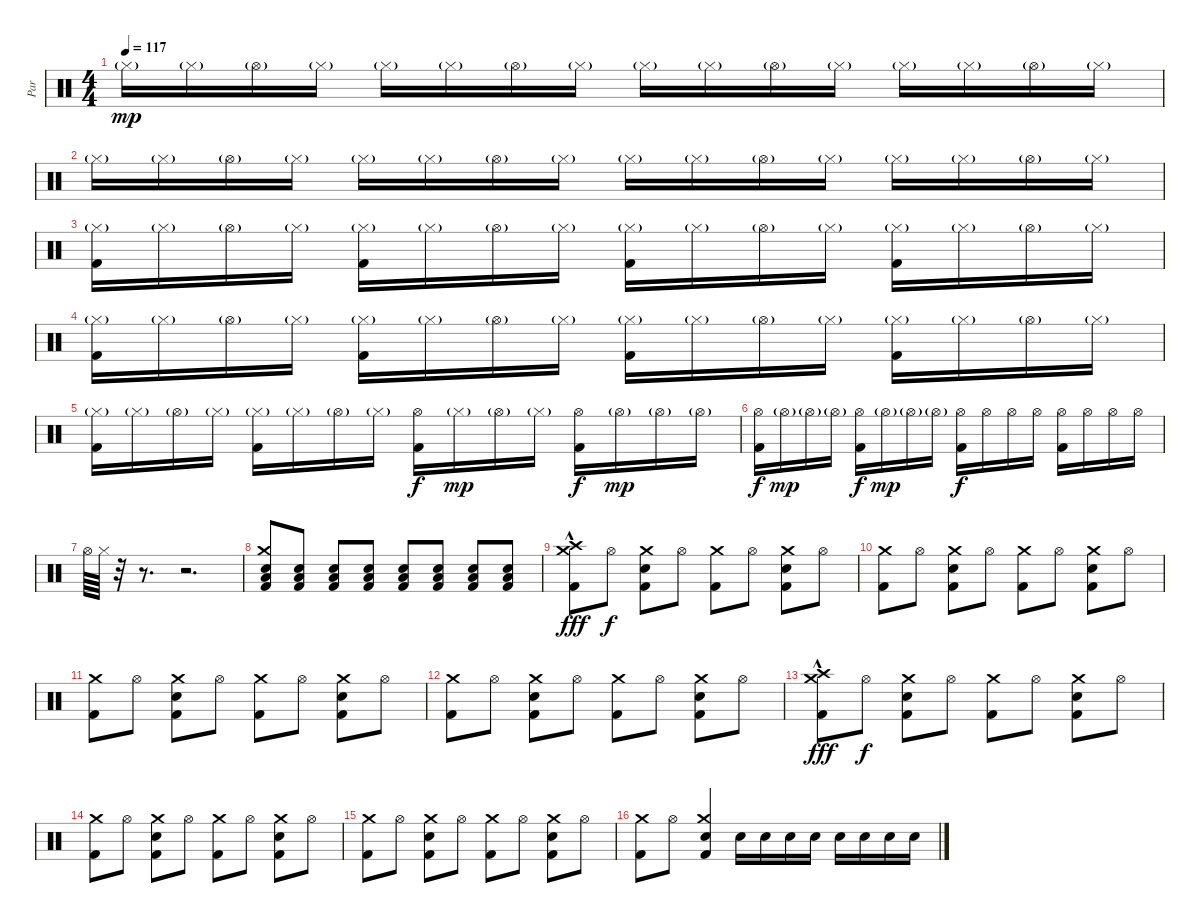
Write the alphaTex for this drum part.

\track ("Par" "Par") {instrument percussion}
\staff {score}
\articulation defaults
\ts (4 4)
\tempo 117
\clef neutral
\ks c "Hi-Hat (closed)"{g}.16{dy mp} "Hi-Hat (closed)"{g}.16 "Hi-Hat (open)"{g}.16 "Hi-Hat (closed)"{g}.16 "Hi-Hat (closed)"{g}.16 "Hi-Hat (closed)"{g}.16 "Hi-Hat (open)"{g}.16 "Hi-Hat (closed)"{g}.16 "Hi-Hat (closed)"{g}.16 "Hi-Hat (closed)"{g}.16 "Hi-Hat (open)"{g}.16 "Hi-Hat (closed)"{g}.16 "Hi-Hat (closed)"{g}.16 "Hi-Hat (closed)"{g}.16 "Hi-Hat (open)"{g}.16 "Hi-Hat (closed)"{g}.16
|
"Hi-Hat (closed)"{g}.16 "Hi-Hat (closed)"{g}.16 "Hi-Hat (open)"{g}.16 "Hi-Hat (closed)"{g}.16 "Hi-Hat (closed)"{g}.16 "Hi-Hat (closed)"{g}.16 "Hi-Hat (open)"{g}.16 "Hi-Hat (closed)"{g}.16 "Hi-Hat (closed)"{g}.16 "Hi-Hat (closed)"{g}.16 "Hi-Hat (open)"{g}.16 "Hi-Hat (closed)"{g}.16 "Hi-Hat (closed)"{g}.16 "Hi-Hat (closed)"{g}.16 "Hi-Hat (open)"{g}.16 "Hi-Hat (closed)"{g}.16 |
("Hi-Hat (closed)"{g} "Kick (hit) 2").16 "Hi-Hat (closed)"{g}.16 "Hi-Hat (open)"{g}.16 "Hi-Hat (closed)"{g}.16 ("Hi-Hat (closed)"{g} "Kick (hit) 2").16 "Hi-Hat (closed)"{g}.16 "Hi-Hat (open)"{g}.16 "Hi-Hat (closed)"{g}.16 ("Hi-Hat (closed)"{g} "Kick (hit) 2").16 "Hi-Hat (closed)"{g}.16 "Hi-Hat (open)"{g}.16 "Hi-Hat (closed)"{g}.16 ("Hi-Hat (closed)"{g} "Kick (hit) 2").16 "Hi-Hat (closed)"{g}.16 "Hi-Hat (open)"{g}.16 "Hi-Hat (closed)"{g}.16 |
("Hi-Hat (closed)"{g} "Kick (hit) 2").16 "Hi-Hat (closed)"{g}.16 "Hi-Hat (open)"{g}.16 "Hi-Hat (closed)"{g}.16 ("Hi-Hat (closed)"{g} "Kick (hit) 2").16 "Hi-Hat (closed)"{g}.16 "Hi-Hat (open)"{g}.16 "Hi-Hat (closed)"{g}.16 ("Hi-Hat (closed)"{g} "Kick (hit) 2").16 "Hi-Hat (closed)"{g}.16 "Hi-Hat (open)"{g}.16 "Hi-Hat (closed)"{g}.16 ("Hi-Hat (closed)"{g} "Kick (hit) 2").16 "Hi-Hat (closed)"{g}.16 "Hi-Hat (open)"{g}.16 "Hi-Hat (closed)"{g}.16 |
("Hi-Hat (closed)"{g} "Kick (hit) 2").16 "Hi-Hat (closed)"{g}.16 "Hi-Hat (open)"{g}.16 "Hi-Hat (closed)"{g}.16 ("Hi-Hat (closed)"{g} "Kick (hit) 2").16 "Hi-Hat (closed)"{g}.16 "Hi-Hat (open)"{g}.16 "Hi-Hat (closed)"{g}.16 ("Hi-Hat (open)" "Kick (hit) 2").16{dy f} "Hi-Hat (closed)"{g}.16{dy mp} "Hi-Hat (open)"{g}.16 "Hi-Hat (closed)"{g}.16 ("Hi-Hat (open)" "Kick (hit) 2").16{dy f} "Hi-Hat (open)"{g}.16{dy mp} "Hi-Hat (open)"{g}.16 "Hi-Hat (open)"{g}.16 |
("Hi-Hat (open)" "Kick (hit) 2").16{dy f} "Hi-Hat (open)"{g}.16{dy mp} "Hi-Hat (open)"{g}.16 "Hi-Hat (open)"{g}.16 ("Hi-Hat (open)" "Kick (hit) 2").16{dy f} "Hi-Hat (open)"{g}.16{dy mp} "Hi-Hat (open)"{g}.16 "Hi-Hat (open)"{g}.16 ("Hi-Hat (open)" "Kick (hit) 2").16{dy f} "Hi-Hat (open)".16 "Hi-Hat (open)".16 "Hi-Hat (open)".16 ("Hi-Hat (open)" "Kick (hit) 2").16 "Hi-Hat (open)".16 "Hi-Hat (open)".16 "Hi-Hat (open)".16 |
"Hi-Hat (open)".64 "Hi-Hat (closed)".64 r.32 r.8{d} r.2{d} |
("Crash medium (hit)" "Low Floor Tom (hit)" "Snare (hit) 2" "Kick (hit) 2").8 ("Low Floor Tom (hit)" "Snare (hit) 2" "Kick (hit) 2").8 ("Low Floor Tom (hit)" "Snare (hit) 2" "Kick (hit) 2").8 ("Low Floor Tom (hit)" "Snare (hit) 2" "Kick (hit) 2").8 ("Low Floor Tom (hit)" "Snare (hit) 2" "Kick (hit) 2").8 ("Low Floor Tom (hit)" "Snare (hit) 2" "Kick (hit) 2").8 ("Low Floor Tom (hit)" "Snare (hit) 2" "Kick (hit) 2").8 ("Low Floor Tom (hit)" "Snare (hit) 2" "Kick (hit) 2").8 |
("Crash medium (hit)"{hac} "Crash high (hit)"{hac} "Kick (hit) 2").8{dy fff} "Hi-Hat (open)".8{dy f} ("Crash medium (hit)" "Snare (hit) 2" "Kick (hit) 2").8 "Hi-Hat (open)".8 ("Crash medium (hit)" "Kick (hit) 2").8 "Hi-Hat (open)".8 ("Crash medium (hit)" "Snare (hit) 2" "Kick (hit) 2").8 "Hi-Hat (open)".8 |
("Crash medium (hit)" "Kick (hit) 2").8 "Hi-Hat (open)".8 ("Crash medium (hit)" "Snare (hit) 2" "Kick (hit) 2").8 "Hi-Hat (open)".8 ("Crash medium (hit)" "Kick (hit) 2").8 "Hi-Hat (open)".8 ("Crash medium (hit)" "Snare (hit) 2" "Kick (hit) 2").8 "Hi-Hat (open)".8 |
("Crash medium (hit)" "Kick (hit) 2").8 "Hi-Hat (open)".8 ("Crash medium (hit)" "Snare (hit) 2" "Kick (hit) 2").8 "Hi-Hat (open)".8 ("Crash medium (hit)" "Kick (hit) 2").8 "Hi-Hat (open)".8 ("Crash medium (hit)" "Snare (hit) 2" "Kick (hit) 2").8 "Hi-Hat (open)".8 |
("Crash medium (hit)" "Kick (hit) 2").8 "Hi-Hat (open)".8 ("Crash medium (hit)" "Snare (hit) 2" "Kick (hit) 2").8 "Hi-Hat (open)".8 ("Crash medium (hit)" "Kick (hit) 2").8 "Hi-Hat (open)".8 ("Crash medium (hit)" "Snare (hit) 2" "Kick (hit) 2").8 "Hi-Hat (open)".8 |
("Crash medium (hit)"{hac} "Crash high (hit)"{hac} "Kick (hit) 2").8{dy fff} "Hi-Hat (open)".8{dy f} ("Crash medium (hit)" "Snare (hit) 2" "Kick (hit) 2").8 "Hi-Hat (open)".8 ("Crash medium (hit)" "Kick (hit) 2").8 "Hi-Hat (open)".8 ("Crash medium (hit)" "Snare (hit) 2" "Kick (hit) 2").8 "Hi-Hat (open)".8 |
("Crash medium (hit)" "Kick (hit) 2").8 "Hi-Hat (open)".8 ("Crash medium (hit)" "Snare (hit) 2" "Kick (hit) 2").8 "Hi-Hat (open)".8 ("Crash medium (hit)" "Kick (hit) 2").8 "Hi-Hat (open)".8 ("Crash medium (hit)" "Snare (hit) 2" "Kick (hit) 2").8 "Hi-Hat (open)".8 |
("Crash medium (hit)" "Kick (hit) 2").8 "Hi-Hat (open)".8 ("Crash medium (hit)" "Snare (hit) 2" "Kick (hit) 2").8 "Hi-Hat (open)".8 ("Crash medium (hit)" "Kick (hit) 2").8 "Hi-Hat (open)".8 ("Crash medium (hit)" "Snare (hit) 2" "Kick (hit) 2").8 "Hi-Hat (open)".8 |
("Crash medium (hit)" "Kick (hit) 2").8 "Hi-Hat (open)".8 ("Crash medium (hit)" "Snare (hit) 2" "Kick (hit) 2").4 "Snare (hit) 2".16 "Snare (hit) 2".16 "Snare (hit) 2".16 "Snare (hit) 2".16 "Snare (hit) 2".16 "Snare (hit) 2".16 "Snare (hit) 2".16 "Snare (hit) 2".16
